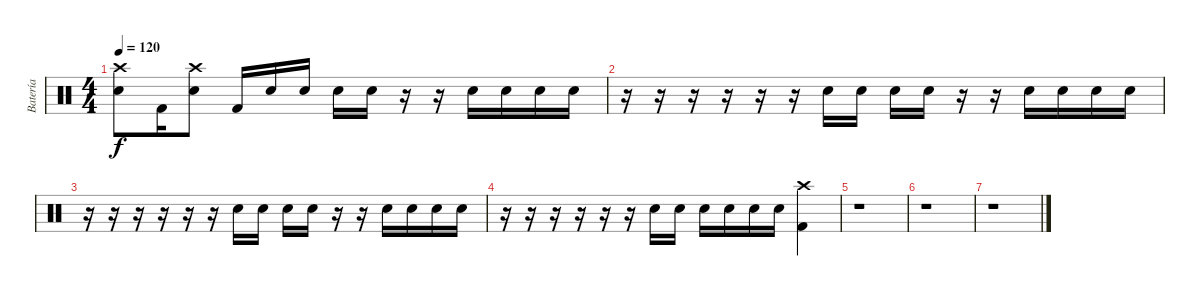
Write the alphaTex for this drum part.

\track ("Batería" "Batería") {instrument percussion}
\staff {score}
\articulation defaults
\ts (4 4)
\tempo 120
\clef neutral
\ks c
("Snare (hit) 2" "Crash high (hit)").8{dy f} "Kick (hit) 2".16 ("Snare (hit) 2" "Crash high (hit)").8 "Kick (hit) 2".16 "Snare (hit) 2".16 "Snare (hit) 2".16 "Snare (hit) 2".16 "Snare (hit) 2".16 r.16 r.16 "Snare (hit) 2".16 "Snare (hit) 2".16 "Snare (hit) 2".16 "Snare (hit) 2".16 |
r.16 r.16 r.16 r.16 r.16 r.16 "Snare (hit) 2".16 "Snare (hit) 2".16 "Snare (hit) 2".16 "Snare (hit) 2".16 r.16 r.16 "Snare (hit) 2".16 "Snare (hit) 2".16 "Snare (hit) 2".16 "Snare (hit) 2".16 |
r.16 r.16 r.16 r.16 r.16 r.16 "Snare (hit) 2".16 "Snare (hit) 2".16 "Snare (hit) 2".16 "Snare (hit) 2".16 r.16 r.16 "Snare (hit) 2".16 "Snare (hit) 2".16 "Snare (hit) 2".16 "Snare (hit) 2".16 |
r.16 r.16 r.16 r.16 r.16 r.16 "Snare (hit) 2".16 "Snare (hit) 2".16 "Snare (hit) 2".16 "Snare (hit) 2".16 "Snare (hit) 2".16 "Snare (hit) 2".16 ("Crash high (hit)" "Kick (hit) 2").4 |
r.1 |
r.1 |
r.1
